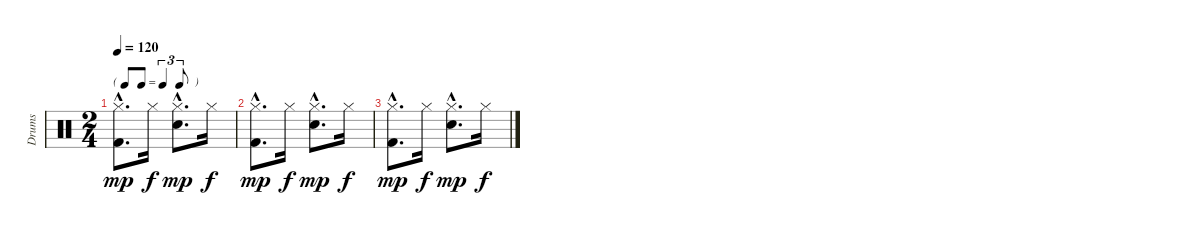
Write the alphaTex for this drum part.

\track ("Drums" "Drums") {instrument percussion}
\staff {score}
\articulation defaults
\ts (2 4)
\tf triplet8th
\tempo 120
\clef neutral
\ks c
("Kick (hit) 2"{hac} "Hi-Hat (closed)"{hac}).8{d dy mp} "Hi-Hat (closed)".16{dy f} ("Snare (hit) 2"{hac} "Hi-Hat (closed)"{hac}).8{d dy mp} "Hi-Hat (closed)".16{dy f} |
("Kick (hit) 2"{hac} "Hi-Hat (closed)"{hac}).8{d dy mp} "Hi-Hat (closed)".16{dy f} ("Snare (hit) 2"{hac} "Hi-Hat (closed)"{hac}).8{d dy mp} "Hi-Hat (closed)".16{dy f} |
("Kick (hit) 2"{hac} "Hi-Hat (closed)"{hac}).8{d dy mp} "Hi-Hat (closed)".16{dy f} ("Snare (hit) 2"{hac} "Hi-Hat (closed)"{hac}).8{d dy mp} "Hi-Hat (closed)".16{dy f}
